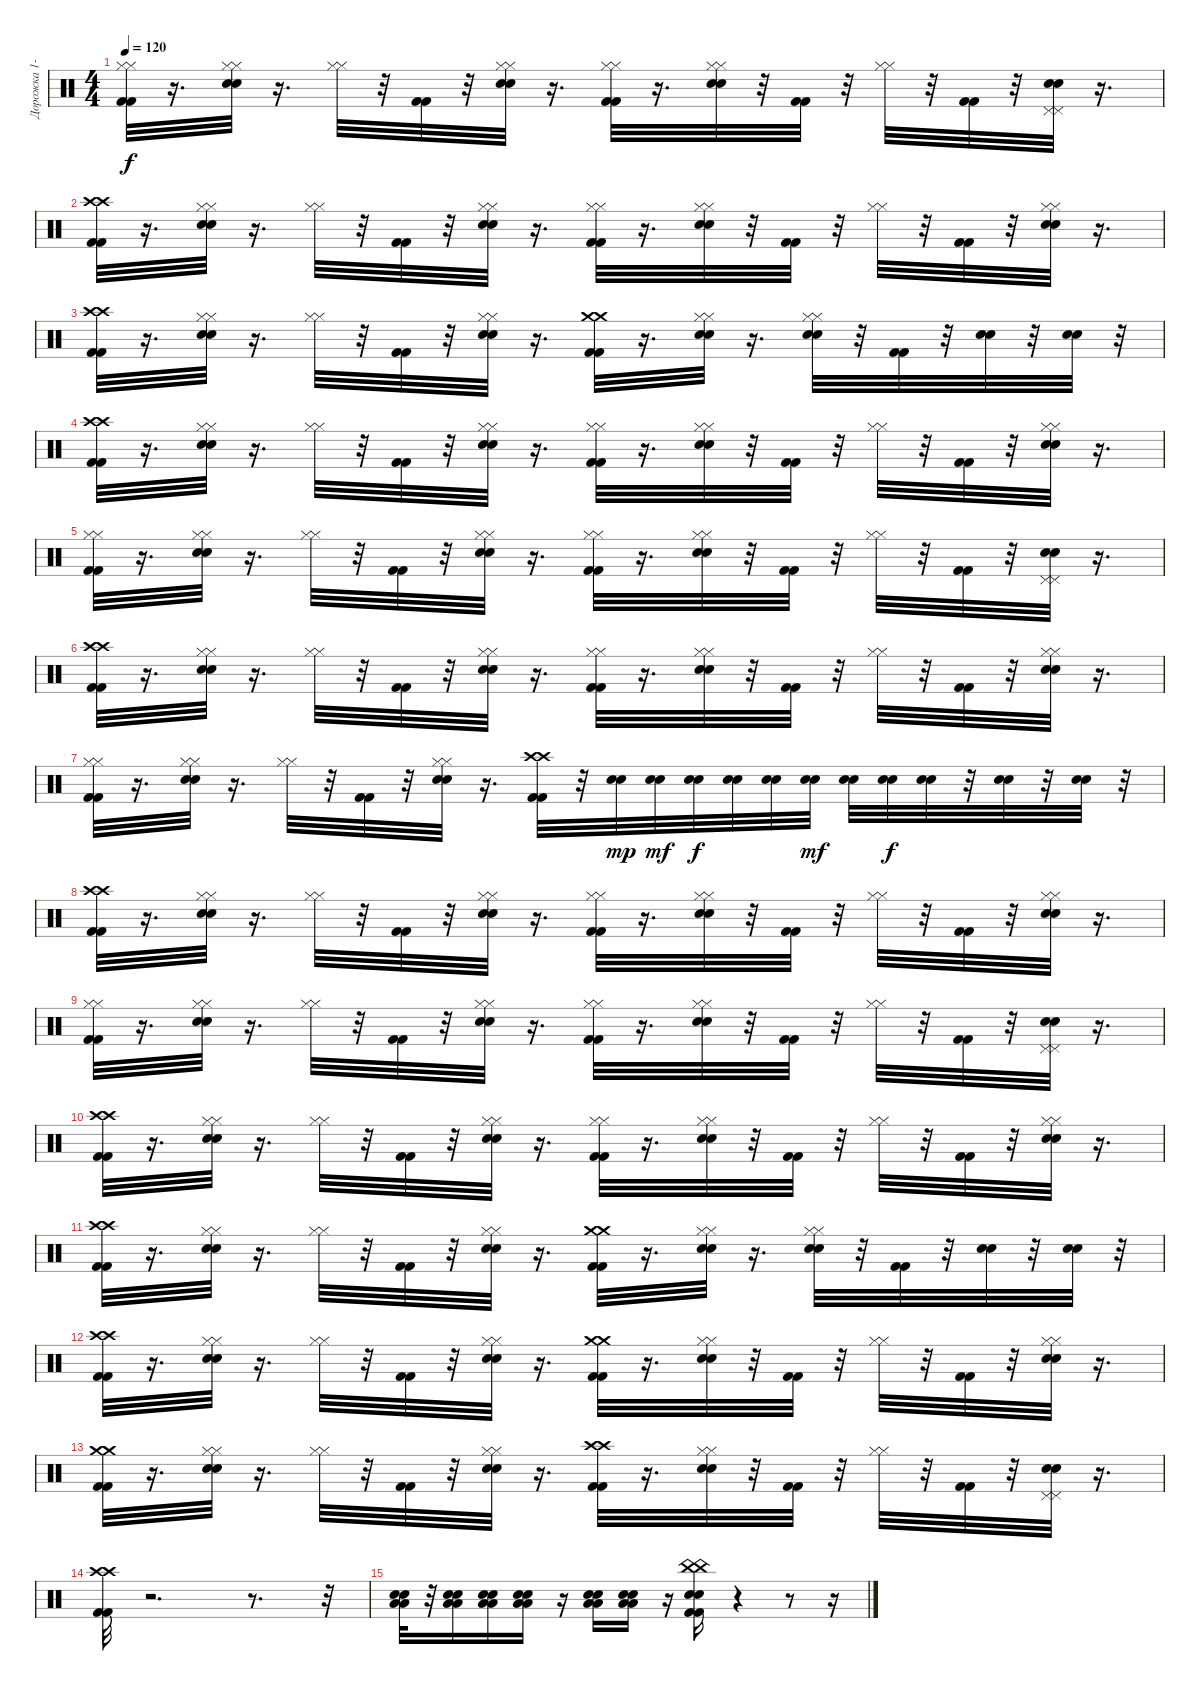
\track ("Дорожка 1-2" "Дорожка 1-") {instrument percussion}
\staff {score}
\articulation defaults
\ts (4 4)
\tempo 120
\clef neutral
\ks c
("Kick (hit) 2" "Kick (hit) 2" "Hi-Hat (closed)" "Hi-Hat (closed)").32{dy f} r.16{d} ("Electric Snare (hit)" "Electric Snare (hit)" "Hi-Hat (closed)" "Hi-Hat (closed)").32 r.16{d} ("Hi-Hat (closed)" "Hi-Hat (closed)").32 r.32 ("Kick (hit) 2" "Kick (hit) 2").32 r.32 ("Electric Snare (hit)" "Electric Snare (hit)" "Hi-Hat (closed)" "Hi-Hat (closed)").32 r.16{d} ("Kick (hit) 2" "Kick (hit) 2" "Hi-Hat (closed)" "Hi-Hat (closed)").32 r.16{d} ("Electric Snare (hit)" "Electric Snare (hit)" "Hi-Hat (closed)" "Hi-Hat (closed)").32 r.32 ("Kick (hit) 2" "Kick (hit) 2").32 r.32 ("Hi-Hat (closed)" "Hi-Hat (closed)").32 r.32 ("Kick (hit) 2" "Kick (hit) 2").32 r.32 ("Electric Snare (hit)" "Electric Snare (hit)" "Pedal Hi-Hat (hit)" "Pedal Hi-Hat (hit)").32 r.16{d} |
("Kick (hit) 2" "Kick (hit) 2" "Crash high (hit)" "Crash high (hit)").32 r.16{d} ("Electric Snare (hit)" "Electric Snare (hit)" "Hi-Hat (closed)" "Hi-Hat (closed)").32 r.16{d} ("Hi-Hat (closed)" "Hi-Hat (closed)").32 r.32 ("Kick (hit) 2" "Kick (hit) 2").32 r.32 ("Electric Snare (hit)" "Electric Snare (hit)" "Hi-Hat (closed)" "Hi-Hat (closed)").32 r.16{d} ("Kick (hit) 2" "Kick (hit) 2" "Hi-Hat (closed)" "Hi-Hat (closed)").32 r.16{d} ("Electric Snare (hit)" "Electric Snare (hit)" "Hi-Hat (closed)" "Hi-Hat (closed)").32 r.32 ("Kick (hit) 2" "Kick (hit) 2").32 r.32 ("Hi-Hat (closed)" "Hi-Hat (closed)").32 r.32 ("Kick (hit) 2" "Kick (hit) 2").32 r.32 ("Electric Snare (hit)" "Electric Snare (hit)" "Hi-Hat (closed)" "Hi-Hat (closed)").32 r.16{d} |
("Kick (hit) 2" "Kick (hit) 2" "Crash high (hit)" "Crash high (hit)").32 r.16{d} ("Electric Snare (hit)" "Electric Snare (hit)" "Hi-Hat (closed)" "Hi-Hat (closed)").32 r.16{d} ("Hi-Hat (closed)" "Hi-Hat (closed)").32 r.32 ("Kick (hit) 2" "Kick (hit) 2").32 r.32 ("Electric Snare (hit)" "Electric Snare (hit)" "Hi-Hat (closed)" "Hi-Hat (closed)").32 r.16{d} ("Kick (hit) 2" "Kick (hit) 2" "Crash medium (hit)" "Crash medium (hit)").32 r.16{d} ("Electric Snare (hit)" "Electric Snare (hit)" "Hi-Hat (closed)" "Hi-Hat (closed)").32 r.16{d} ("Electric Snare (hit)" "Electric Snare (hit)" "Hi-Hat (closed)" "Hi-Hat (closed)").32 r.32 ("Kick (hit) 2" "Kick (hit) 2").32 r.32 ("Electric Snare (hit)" "Electric Snare (hit)").32 r.32 ("Electric Snare (hit)" "Electric Snare (hit)").32 r.32 |
("Kick (hit) 2" "Kick (hit) 2" "Crash high (hit)" "Crash high (hit)").32 r.16{d} ("Electric Snare (hit)" "Electric Snare (hit)" "Hi-Hat (closed)" "Hi-Hat (closed)").32 r.16{d} ("Hi-Hat (closed)" "Hi-Hat (closed)").32 r.32 ("Kick (hit) 2" "Kick (hit) 2").32 r.32 ("Electric Snare (hit)" "Electric Snare (hit)" "Hi-Hat (closed)" "Hi-Hat (closed)").32 r.16{d} ("Kick (hit) 2" "Kick (hit) 2" "Hi-Hat (closed)" "Hi-Hat (closed)").32 r.16{d} ("Electric Snare (hit)" "Electric Snare (hit)" "Hi-Hat (closed)" "Hi-Hat (closed)").32 r.32 ("Kick (hit) 2" "Kick (hit) 2").32 r.32 ("Hi-Hat (closed)" "Hi-Hat (closed)").32 r.32 ("Kick (hit) 2" "Kick (hit) 2").32 r.32 ("Electric Snare (hit)" "Electric Snare (hit)" "Hi-Hat (closed)" "Hi-Hat (closed)").32 r.16{d} |
("Kick (hit) 2" "Kick (hit) 2" "Hi-Hat (closed)" "Hi-Hat (closed)").32 r.16{d} ("Electric Snare (hit)" "Electric Snare (hit)" "Hi-Hat (closed)" "Hi-Hat (closed)").32 r.16{d} ("Hi-Hat (closed)" "Hi-Hat (closed)").32 r.32 ("Kick (hit) 2" "Kick (hit) 2").32 r.32 ("Electric Snare (hit)" "Electric Snare (hit)" "Hi-Hat (closed)" "Hi-Hat (closed)").32 r.16{d} ("Kick (hit) 2" "Kick (hit) 2" "Hi-Hat (closed)" "Hi-Hat (closed)").32 r.16{d} ("Electric Snare (hit)" "Electric Snare (hit)" "Hi-Hat (closed)" "Hi-Hat (closed)").32 r.32 ("Kick (hit) 2" "Kick (hit) 2").32 r.32 ("Hi-Hat (closed)" "Hi-Hat (closed)").32 r.32 ("Kick (hit) 2" "Kick (hit) 2").32 r.32 ("Electric Snare (hit)" "Electric Snare (hit)" "Pedal Hi-Hat (hit)" "Pedal Hi-Hat (hit)").32 r.16{d} |
("Kick (hit) 2" "Kick (hit) 2" "Crash high (hit)" "Crash high (hit)").32 r.16{d} ("Electric Snare (hit)" "Electric Snare (hit)" "Hi-Hat (closed)" "Hi-Hat (closed)").32 r.16{d} ("Hi-Hat (closed)" "Hi-Hat (closed)").32 r.32 ("Kick (hit) 2" "Kick (hit) 2").32 r.32 ("Electric Snare (hit)" "Electric Snare (hit)" "Hi-Hat (closed)" "Hi-Hat (closed)").32 r.16{d} ("Kick (hit) 2" "Kick (hit) 2" "Hi-Hat (closed)" "Hi-Hat (closed)").32 r.16{d} ("Electric Snare (hit)" "Electric Snare (hit)" "Hi-Hat (closed)" "Hi-Hat (closed)").32 r.32 ("Kick (hit) 2" "Kick (hit) 2").32 r.32 ("Hi-Hat (closed)" "Hi-Hat (closed)").32 r.32 ("Kick (hit) 2" "Kick (hit) 2").32 r.32 ("Electric Snare (hit)" "Electric Snare (hit)" "Hi-Hat (closed)" "Hi-Hat (closed)").32 r.16{d} |
("Kick (hit) 2" "Kick (hit) 2" "Hi-Hat (closed)" "Hi-Hat (closed)").32 r.16{d} ("Electric Snare (hit)" "Electric Snare (hit)" "Hi-Hat (closed)" "Hi-Hat (closed)").32 r.16{d} ("Hi-Hat (closed)" "Hi-Hat (closed)").32 r.32 ("Kick (hit) 2" "Kick (hit) 2").32 r.32 ("Electric Snare (hit)" "Electric Snare (hit)" "Hi-Hat (closed)" "Hi-Hat (closed)").32 r.16{d} ("Kick (hit) 2" "Kick (hit) 2" "Crash high (hit)" "Crash high (hit)").32 r.32 ("Electric Snare (hit)" "Electric Snare (hit)").32{dy mp} ("Electric Snare (hit)" "Electric Snare (hit)").32{dy mf} ("Electric Snare (hit)" "Electric Snare (hit)").32{dy f} ("Electric Snare (hit)" "Electric Snare (hit)").32 ("Electric Snare (hit)" "Electric Snare (hit)").32 ("Electric Snare (hit)" "Electric Snare (hit)").32{dy mf} ("Electric Snare (hit)" "Electric Snare (hit)").32 ("Electric Snare (hit)" "Electric Snare (hit)").32{dy f} ("Electric Snare (hit)" "Electric Snare (hit)").32 r.32 ("Electric Snare (hit)" "Electric Snare (hit)").32 r.32 ("Electric Snare (hit)" "Electric Snare (hit)").32 r.32 |
("Kick (hit) 2" "Kick (hit) 2" "Crash high (hit)" "Crash high (hit)").32 r.16{d} ("Electric Snare (hit)" "Electric Snare (hit)" "Hi-Hat (closed)" "Hi-Hat (closed)").32 r.16{d} ("Hi-Hat (closed)" "Hi-Hat (closed)").32 r.32 ("Kick (hit) 2" "Kick (hit) 2").32 r.32 ("Electric Snare (hit)" "Electric Snare (hit)" "Hi-Hat (closed)" "Hi-Hat (closed)").32 r.16{d} ("Kick (hit) 2" "Kick (hit) 2" "Hi-Hat (closed)" "Hi-Hat (closed)").32 r.16{d} ("Electric Snare (hit)" "Electric Snare (hit)" "Hi-Hat (closed)" "Hi-Hat (closed)").32 r.32 ("Kick (hit) 2" "Kick (hit) 2").32 r.32 ("Hi-Hat (closed)" "Hi-Hat (closed)").32 r.32 ("Kick (hit) 2" "Kick (hit) 2").32 r.32 ("Electric Snare (hit)" "Electric Snare (hit)" "Hi-Hat (closed)" "Hi-Hat (closed)").32 r.16{d} |
("Kick (hit) 2" "Kick (hit) 2" "Hi-Hat (closed)" "Hi-Hat (closed)").32 r.16{d} ("Electric Snare (hit)" "Electric Snare (hit)" "Hi-Hat (closed)" "Hi-Hat (closed)").32 r.16{d} ("Hi-Hat (closed)" "Hi-Hat (closed)").32 r.32 ("Kick (hit) 2" "Kick (hit) 2").32 r.32 ("Electric Snare (hit)" "Electric Snare (hit)" "Hi-Hat (closed)" "Hi-Hat (closed)").32 r.16{d} ("Kick (hit) 2" "Kick (hit) 2" "Hi-Hat (closed)" "Hi-Hat (closed)").32 r.16{d} ("Electric Snare (hit)" "Electric Snare (hit)" "Hi-Hat (closed)" "Hi-Hat (closed)").32 r.32 ("Kick (hit) 2" "Kick (hit) 2").32 r.32 ("Hi-Hat (closed)" "Hi-Hat (closed)").32 r.32 ("Kick (hit) 2" "Kick (hit) 2").32 r.32 ("Electric Snare (hit)" "Electric Snare (hit)" "Pedal Hi-Hat (hit)" "Pedal Hi-Hat (hit)").32 r.16{d} |
("Kick (hit) 2" "Kick (hit) 2" "Crash high (hit)" "Crash high (hit)").32 r.16{d} ("Electric Snare (hit)" "Electric Snare (hit)" "Hi-Hat (closed)" "Hi-Hat (closed)").32 r.16{d} ("Hi-Hat (closed)" "Hi-Hat (closed)").32 r.32 ("Kick (hit) 2" "Kick (hit) 2").32 r.32 ("Electric Snare (hit)" "Electric Snare (hit)" "Hi-Hat (closed)" "Hi-Hat (closed)").32 r.16{d} ("Kick (hit) 2" "Kick (hit) 2" "Hi-Hat (closed)" "Hi-Hat (closed)").32 r.16{d} ("Electric Snare (hit)" "Electric Snare (hit)" "Hi-Hat (closed)" "Hi-Hat (closed)").32 r.32 ("Kick (hit) 2" "Kick (hit) 2").32 r.32 ("Hi-Hat (closed)" "Hi-Hat (closed)").32 r.32 ("Kick (hit) 2" "Kick (hit) 2").32 r.32 ("Electric Snare (hit)" "Electric Snare (hit)" "Hi-Hat (closed)" "Hi-Hat (closed)").32 r.16{d} |
("Kick (hit) 2" "Kick (hit) 2" "Crash high (hit)" "Crash high (hit)").32 r.16{d} ("Electric Snare (hit)" "Electric Snare (hit)" "Hi-Hat (closed)" "Hi-Hat (closed)").32 r.16{d} ("Hi-Hat (closed)" "Hi-Hat (closed)").32 r.32 ("Kick (hit) 2" "Kick (hit) 2").32 r.32 ("Electric Snare (hit)" "Electric Snare (hit)" "Hi-Hat (closed)" "Hi-Hat (closed)").32 r.16{d} ("Kick (hit) 2" "Kick (hit) 2" "Crash medium (hit)" "Crash medium (hit)").32 r.16{d} ("Electric Snare (hit)" "Electric Snare (hit)" "Hi-Hat (closed)" "Hi-Hat (closed)").32 r.16{d} ("Electric Snare (hit)" "Electric Snare (hit)" "Hi-Hat (closed)" "Hi-Hat (closed)").32 r.32 ("Kick (hit) 2" "Kick (hit) 2").32 r.32 ("Electric Snare (hit)" "Electric Snare (hit)").32 r.32 ("Electric Snare (hit)" "Electric Snare (hit)").32 r.32 |
("Kick (hit) 2" "Kick (hit) 2" "Crash high (hit)" "Crash high (hit)").32 r.16{d} ("Electric Snare (hit)" "Electric Snare (hit)" "Hi-Hat (closed)" "Hi-Hat (closed)").32 r.16{d} ("Hi-Hat (closed)" "Hi-Hat (closed)").32 r.32 ("Kick (hit) 2" "Kick (hit) 2").32 r.32 ("Electric Snare (hit)" "Electric Snare (hit)" "Hi-Hat (closed)" "Hi-Hat (closed)").32 r.16{d} ("Kick (hit) 2" "Kick (hit) 2" "Crash medium (hit)" "Crash medium (hit)").32 r.16{d} ("Electric Snare (hit)" "Electric Snare (hit)" "Hi-Hat (closed)" "Hi-Hat (closed)").32 r.32 ("Kick (hit) 2" "Kick (hit) 2").32 r.32 ("Hi-Hat (closed)" "Hi-Hat (closed)").32 r.32 ("Kick (hit) 2" "Kick (hit) 2").32 r.32 ("Electric Snare (hit)" "Electric Snare (hit)" "Hi-Hat (closed)" "Hi-Hat (closed)").32 r.16{d} |
("Kick (hit) 2" "Kick (hit) 2" "Crash medium (hit)" "Crash medium (hit)").32 r.16{d} ("Electric Snare (hit)" "Electric Snare (hit)" "Hi-Hat (closed)" "Hi-Hat (closed)").32 r.16{d} ("Hi-Hat (closed)" "Hi-Hat (closed)").32 r.32 ("Kick (hit) 2" "Kick (hit) 2").32 r.32 ("Electric Snare (hit)" "Electric Snare (hit)" "Hi-Hat (closed)" "Hi-Hat (closed)").32 r.16{d} ("Kick (hit) 2" "Kick (hit) 2" "Crash high (hit)" "Crash high (hit)").32 r.16{d} ("Electric Snare (hit)" "Electric Snare (hit)" "Hi-Hat (closed)" "Hi-Hat (closed)").32 r.32 ("Kick (hit) 2" "Kick (hit) 2").32 r.32 ("Hi-Hat (closed)" "Hi-Hat (closed)").32 r.32 ("Kick (hit) 2" "Kick (hit) 2").32 r.32 ("Electric Snare (hit)" "Electric Snare (hit)" "Pedal Hi-Hat (hit)" "Pedal Hi-Hat (hit)").32 r.16{d} |
("Kick (hit) 2" "Kick (hit) 2" "Crash high (hit)" "Crash high (hit)").32 r.2{d} r.8{d} r.32 |
("Electric Snare (hit)" "Electric Snare (hit)" "Low Floor Tom (hit)" "Low Floor Tom (hit)").32 r.32 ("Electric Snare (hit)" "Electric Snare (hit)" "Low Floor Tom (hit)" "Low Floor Tom (hit)").16 ("Electric Snare (hit)" "Electric Snare (hit)" "Low Floor Tom (hit)" "Low Floor Tom (hit)").16 ("Electric Snare (hit)" "Electric Snare (hit)" "Low Floor Tom (hit)" "Low Floor Tom (hit)").16 r.16 ("Electric Snare (hit)" "Electric Snare (hit)" "Low Floor Tom (hit)" "Low Floor Tom (hit)").16 ("Electric Snare (hit)" "Electric Snare (hit)" "Low Floor Tom (hit)" "Low Floor Tom (hit)").16 r.16 ("Kick (hit) 2" "Kick (hit) 2" "Electric Snare (hit)" "Electric Snare (hit)" "China (hit)" "China (hit)").16 r.4 r.8 r.16
